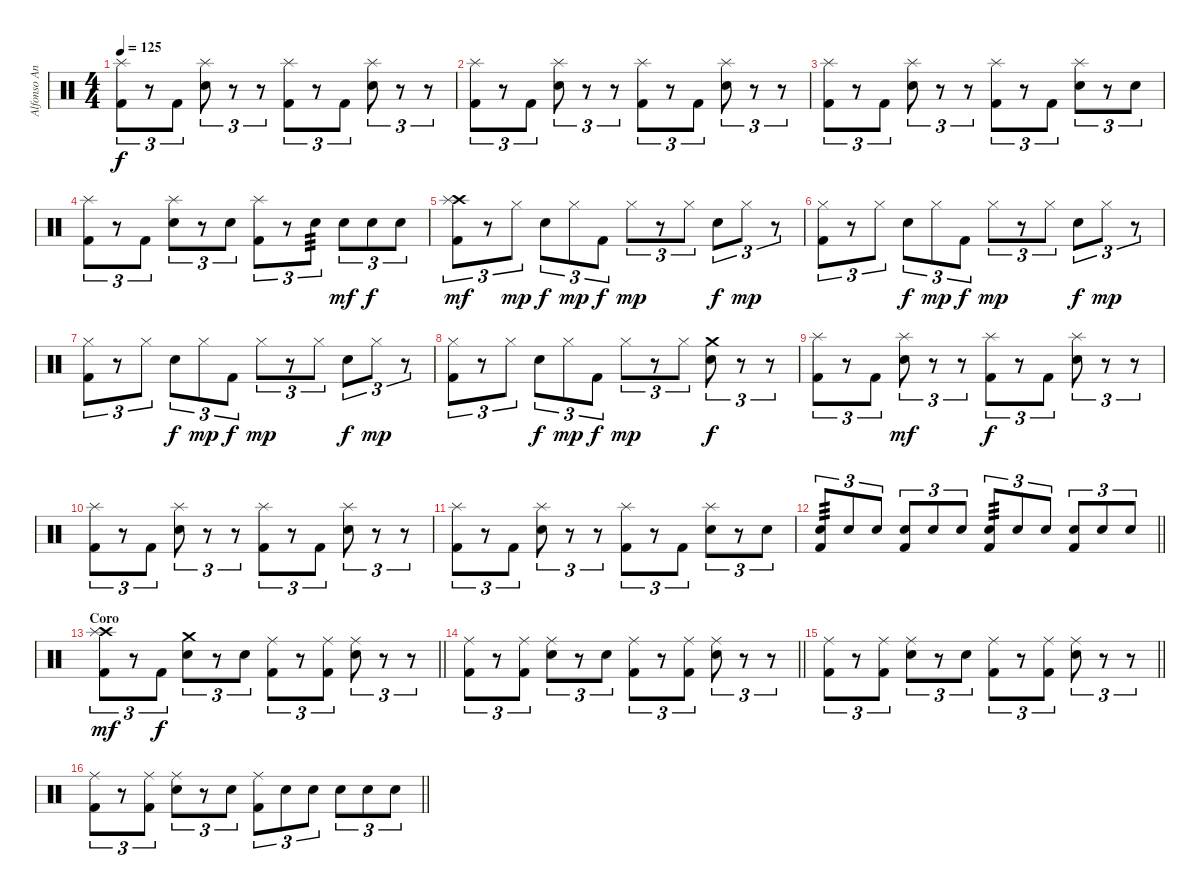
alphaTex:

\track ("Alfonso Andre" "Alfonso An") {instrument percussion}
\staff {score}
\articulation defaults
\ts (4 4)
\tempo 125
\clef neutral
\ks c
("Splash (hit)" "Kick (hit) 2").8{tu (3 2) dy f} r.8{tu (3 2)} "Kick (hit) 2".8{tu (3 2)} ("Splash (hit)" "Electric Snare (hit)").8{tu (3 2)} r.8{tu (3 2)} r.8{tu (3 2)} ("Splash (hit)" "Kick (hit) 2").8{tu (3 2)} r.8{tu (3 2)} "Kick (hit) 2".8{tu (3 2)} ("Splash (hit)" "Electric Snare (hit)").8{tu (3 2)} r.8{tu (3 2)} r.8{tu (3 2)} |
("Splash (hit)" "Kick (hit) 2").8{tu (3 2)} r.8{tu (3 2)} "Kick (hit) 2".8{tu (3 2)} ("Splash (hit)" "Electric Snare (hit)").8{tu (3 2)} r.8{tu (3 2)} r.8{tu (3 2)} ("Splash (hit)" "Kick (hit) 2").8{tu (3 2)} r.8{tu (3 2)} "Kick (hit) 2".8{tu (3 2)} ("Splash (hit)" "Electric Snare (hit)").8{tu (3 2)} r.8{tu (3 2)} r.8{tu (3 2)} |
("Splash (hit)" "Kick (hit) 2").8{tu (3 2)} r.8{tu (3 2)} "Kick (hit) 2".8{tu (3 2)} ("Splash (hit)" "Electric Snare (hit)").8{tu (3 2)} r.8{tu (3 2)} r.8{tu (3 2)} ("Splash (hit)" "Kick (hit) 2").8{tu (3 2)} r.8{tu (3 2)} "Kick (hit) 2".8{tu (3 2)} ("Splash (hit)" "Electric Snare (hit)").8{tu (3 2)} r.8{tu (3 2)} "Electric Snare (hit)".8{tu (3 2)} |
("Splash (hit)" "Kick (hit) 2").8{tu (3 2)} r.8{tu (3 2)} "Kick (hit) 2".8{tu (3 2)} ("Splash (hit)" "Electric Snare (hit)").8{tu (3 2)} r.8{tu (3 2)} "Electric Snare (hit)".8{tu (3 2)} ("Splash (hit)" "Kick (hit) 2").8{tu (3 2)} r.8{tu (3 2)} "Electric Snare (hit)".8{tu (3 2) tp 3} "Electric Snare (hit)".8{tu (3 2) dy mf} "Electric Snare (hit)".8{tu (3 2) dy f} "Electric Snare (hit)".8{tu (3 2)} |
("Crash high (hit)" "Splash (hit)" "Kick (hit) 2").8{tu (3 2) dy mf} r.8{tu (3 2)} "Hi-Hat (closed)".8{tu (3 2) dy mp} "Electric Snare (hit)".8{tu (3 2) dy f} "Hi-Hat (closed)".8{tu (3 2) dy mp} "Kick (hit) 2".8{tu (3 2) dy f} "Hi-Hat (closed)".8{tu (3 2) dy mp} r.8{tu (3 2)} "Hi-Hat (closed)".8{tu (3 2)} "Electric Snare (hit)".8{tu (3 2) dy f} "Hi-Hat (closed)".8{tu (3 2) dy mp} r.8{tu (3 2)} |
("Hi-Hat (closed)" "Kick (hit) 2").8{tu (3 2)} r.8{tu (3 2)} "Hi-Hat (closed)".8{tu (3 2)} "Electric Snare (hit)".8{tu (3 2) dy f} "Hi-Hat (closed)".8{tu (3 2) dy mp} "Kick (hit) 2".8{tu (3 2) dy f} "Hi-Hat (closed)".8{tu (3 2) dy mp} r.8{tu (3 2)} "Hi-Hat (closed)".8{tu (3 2)} "Electric Snare (hit)".8{tu (3 2) dy f} "Hi-Hat (closed)".8{tu (3 2) dy mp} r.8{tu (3 2)} |
("Hi-Hat (closed)" "Kick (hit) 2").8{tu (3 2)} r.8{tu (3 2)} "Hi-Hat (closed)".8{tu (3 2)} "Electric Snare (hit)".8{tu (3 2) dy f} "Hi-Hat (closed)".8{tu (3 2) dy mp} "Kick (hit) 2".8{tu (3 2) dy f} "Hi-Hat (closed)".8{tu (3 2) dy mp} r.8{tu (3 2)} "Hi-Hat (closed)".8{tu (3 2)} "Electric Snare (hit)".8{tu (3 2) dy f} "Hi-Hat (closed)".8{tu (3 2) dy mp} r.8{tu (3 2)} |
("Hi-Hat (closed)" "Kick (hit) 2").8{tu (3 2)} r.8{tu (3 2)} "Hi-Hat (closed)".8{tu (3 2)} "Electric Snare (hit)".8{tu (3 2) dy f} "Hi-Hat (closed)".8{tu (3 2) dy mp} "Kick (hit) 2".8{tu (3 2) dy f} "Hi-Hat (closed)".8{tu (3 2) dy mp} r.8{tu (3 2)} "Hi-Hat (closed)".8{tu (3 2)} ("Crash medium (hit)" "Electric Snare (hit)").8{tu (3 2) dy f} r.8{tu (3 2)} r.8{tu (3 2)} |
("Splash (hit)" "Kick (hit) 2").8{tu (3 2)} r.8{tu (3 2)} "Kick (hit) 2".8{tu (3 2)} ("Splash (hit)" "Electric Snare (hit)").8{tu (3 2) dy mf} r.8{tu (3 2)} r.8{tu (3 2)} ("Splash (hit)" "Kick (hit) 2").8{tu (3 2) dy f} r.8{tu (3 2)} "Kick (hit) 2".8{tu (3 2)} ("Splash (hit)" "Electric Snare (hit)").8{tu (3 2)} r.8{tu (3 2)} r.8{tu (3 2)} |
("Splash (hit)" "Kick (hit) 2").8{tu (3 2)} r.8{tu (3 2)} "Kick (hit) 2".8{tu (3 2)} ("Splash (hit)" "Electric Snare (hit)").8{tu (3 2)} r.8{tu (3 2)} r.8{tu (3 2)} ("Splash (hit)" "Kick (hit) 2").8{tu (3 2)} r.8{tu (3 2)} "Kick (hit) 2".8{tu (3 2)} ("Splash (hit)" "Electric Snare (hit)").8{tu (3 2)} r.8{tu (3 2)} r.8{tu (3 2)} |
("Splash (hit)" "Kick (hit) 2").8{tu (3 2)} r.8{tu (3 2)} "Kick (hit) 2".8{tu (3 2)} ("Splash (hit)" "Electric Snare (hit)").8{tu (3 2)} r.8{tu (3 2)} r.8{tu (3 2)} ("Splash (hit)" "Kick (hit) 2").8{tu (3 2)} r.8{tu (3 2)} "Kick (hit) 2".8{tu (3 2)} ("Splash (hit)" "Electric Snare (hit)").8{tu (3 2)} r.8{tu (3 2)} "Electric Snare (hit)".8{tu (3 2)} |
\barLineRight lightlight
("Kick (hit) 2" "Electric Snare (hit)").8{tu (3 2) tp 3} "Electric Snare (hit)".8{tu (3 2)} "Electric Snare (hit)".8{tu (3 2)} ("Kick (hit) 2" "Electric Snare (hit)").8{tu (3 2)} "Electric Snare (hit)".8{tu (3 2)} "Electric Snare (hit)".8{tu (3 2)} ("Kick (hit) 2" "Electric Snare (hit)").8{tu (3 2) tp 3} "Electric Snare (hit)".8{tu (3 2)} "Electric Snare (hit)".8{tu (3 2)} ("Kick (hit) 2" "Electric Snare (hit)").8{tu (3 2)} "Electric Snare (hit)".8{tu (3 2)} "Electric Snare (hit)".8{tu (3 2)} |
\section ("" "Coro")
\barLineRight lightlight
("Crash high (hit)" "Splash (hit)" "Kick (hit) 2").8{tu (3 2) dy mf} r.8{tu (3 2)} "Kick (hit) 2".8{tu (3 2) dy f} ("Crash medium (hit)" "Electric Snare (hit)").8{tu (3 2)} r.8{tu (3 2)} "Electric Snare (hit)".8{tu (3 2)} ("Ride (middle)" "Kick (hit) 2").8{tu (3 2)} r.8{tu (3 2)} ("Ride (middle)" "Kick (hit) 2").8{tu (3 2)} ("Ride (middle)" "Electric Snare (hit)").8{tu (3 2)} r.8{tu (3 2)} r.8{tu (3 2)} |
\barLineRight lightlight
("Ride (middle)" "Kick (hit) 2").8{tu (3 2)} r.8{tu (3 2)} ("Ride (middle)" "Kick (hit) 2").8{tu (3 2)} ("Ride (middle)" "Electric Snare (hit)").8{tu (3 2)} r.8{tu (3 2)} "Electric Snare (hit)".8{tu (3 2)} ("Ride (middle)" "Kick (hit) 2").8{tu (3 2)} r.8{tu (3 2)} ("Ride (middle)" "Kick (hit) 2").8{tu (3 2)} ("Ride (middle)" "Electric Snare (hit)").8{tu (3 2)} r.8{tu (3 2)} r.8{tu (3 2)} |
\barLineRight lightlight
("Ride (middle)" "Kick (hit) 2").8{tu (3 2)} r.8{tu (3 2)} ("Ride (middle)" "Kick (hit) 2").8{tu (3 2)} ("Ride (middle)" "Electric Snare (hit)").8{tu (3 2)} r.8{tu (3 2)} "Electric Snare (hit)".8{tu (3 2)} ("Ride (middle)" "Kick (hit) 2").8{tu (3 2)} r.8{tu (3 2)} ("Ride (middle)" "Kick (hit) 2").8{tu (3 2)} ("Ride (middle)" "Electric Snare (hit)").8{tu (3 2)} r.8{tu (3 2)} r.8{tu (3 2)} |
\barLineRight lightlight
("Ride (middle)" "Kick (hit) 2").8{tu (3 2)} r.8{tu (3 2)} ("Ride (middle)" "Kick (hit) 2").8{tu (3 2)} ("Ride (middle)" "Electric Snare (hit)").8{tu (3 2)} r.8{tu (3 2)} "Electric Snare (hit)".8{tu (3 2)} ("Ride (middle)" "Kick (hit) 2").8{tu (3 2)} "Electric Snare (hit)".8{tu (3 2)} "Electric Snare (hit)".8{tu (3 2)} "Electric Snare (hit)".8{tu (3 2)} "Electric Snare (hit)".8{tu (3 2)} "Electric Snare (hit)".8{tu (3 2)}
